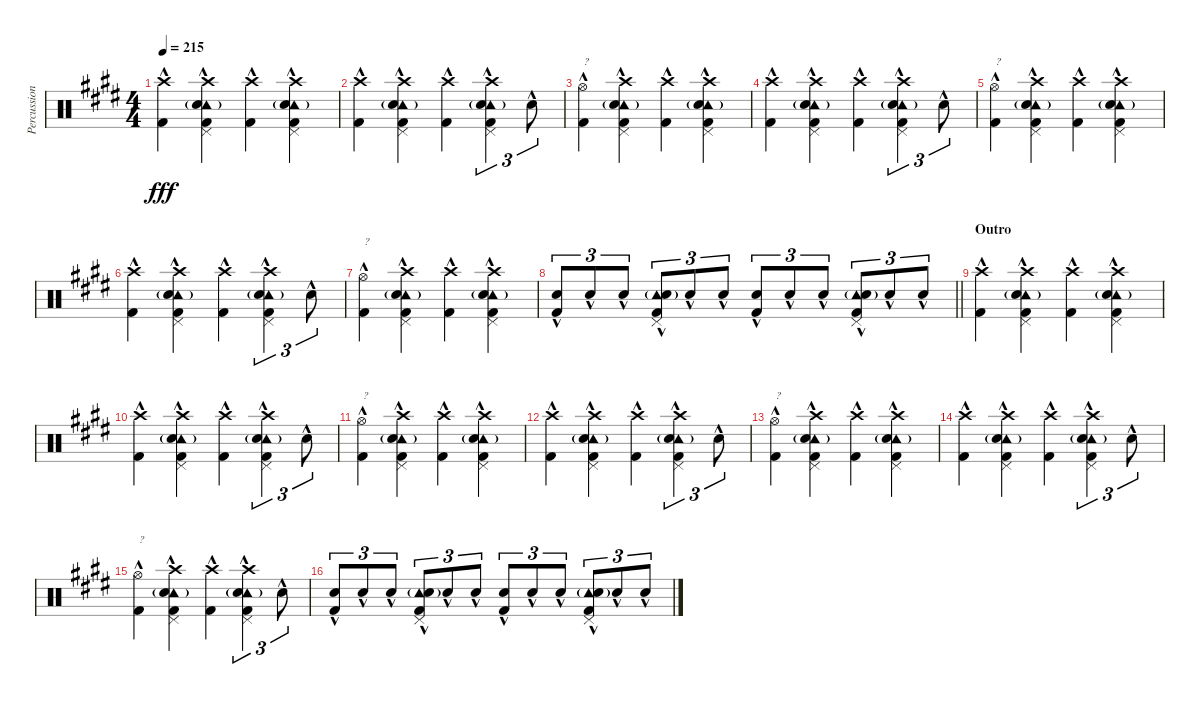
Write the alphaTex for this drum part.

\track ("Percussion" "Percussion") {instrument percussion}
\staff {score}
\articulation defaults
\ts (4 4)
\tempo 215
\clef neutral
\ks e
("Crash high (hit)" "Kick (hit) 2"{hac}).4{dy fff} ("Tambourine (hit)"{g} "Pedal Hi-Hat (hit)" "Crash high (hit)" "Electric Snare (hit)"{hac} "Kick (hit) 2"{hac}).4 ("Crash high (hit)" "Kick (hit) 2"{hac}).4 ("Tambourine (hit)"{g} "Pedal Hi-Hat (hit)" "Crash high (hit)" "Electric Snare (hit)"{hac} "Kick (hit) 2"{hac}).4 |
("Crash high (hit)" "Kick (hit) 2"{hac}).4 ("Tambourine (hit)"{g} "Pedal Hi-Hat (hit)" "Crash high (hit)" "Electric Snare (hit)"{hac} "Kick (hit) 2"{hac}).4 ("Crash high (hit)" "Kick (hit) 2"{hac}).4 ("Tambourine (hit)"{g} "Pedal Hi-Hat (hit)" "Crash high (hit)" "Electric Snare (hit)"{hac} "Kick (hit) 2"{hac}).4{tu (3 2)} "Electric Snare (hit)"{hac}.8{tu (3 2)} |
("Hi-Hat (open)" "Kick (hit) 2"{hac}).4{txt "?"} ("Tambourine (hit)"{g} "Pedal Hi-Hat (hit)" "Crash high (hit)" "Electric Snare (hit)"{hac} "Kick (hit) 2"{hac}).4 ("Crash high (hit)" "Kick (hit) 2"{hac}).4 ("Tambourine (hit)"{g} "Pedal Hi-Hat (hit)" "Crash high (hit)" "Electric Snare (hit)"{hac} "Kick (hit) 2"{hac}).4 |
("Crash high (hit)" "Kick (hit) 2"{hac}).4 ("Tambourine (hit)"{g} "Pedal Hi-Hat (hit)" "Crash high (hit)" "Electric Snare (hit)"{hac} "Kick (hit) 2"{hac}).4 ("Crash high (hit)" "Kick (hit) 2"{hac}).4 ("Tambourine (hit)"{g} "Pedal Hi-Hat (hit)" "Crash high (hit)" "Electric Snare (hit)"{hac} "Kick (hit) 2"{hac}).4{tu (3 2)} "Electric Snare (hit)"{hac}.8{tu (3 2)} |
("Hi-Hat (open)" "Kick (hit) 2"{hac}).4{txt "?"} ("Tambourine (hit)"{g} "Pedal Hi-Hat (hit)" "Crash high (hit)" "Electric Snare (hit)"{hac} "Kick (hit) 2"{hac}).4 ("Crash high (hit)" "Kick (hit) 2"{hac}).4 ("Tambourine (hit)"{g} "Pedal Hi-Hat (hit)" "Crash high (hit)" "Electric Snare (hit)"{hac} "Kick (hit) 2"{hac}).4 |
("Crash high (hit)" "Kick (hit) 2"{hac}).4 ("Tambourine (hit)"{g} "Pedal Hi-Hat (hit)" "Crash high (hit)" "Electric Snare (hit)"{hac} "Kick (hit) 2"{hac}).4 ("Crash high (hit)" "Kick (hit) 2"{hac}).4 ("Tambourine (hit)"{g} "Pedal Hi-Hat (hit)" "Crash high (hit)" "Electric Snare (hit)"{hac} "Kick (hit) 2"{hac}).4{tu (3 2)} "Electric Snare (hit)"{hac}.8{tu (3 2)} |
("Hi-Hat (open)" "Kick (hit) 2"{hac}).4{txt "?"} ("Tambourine (hit)"{g} "Pedal Hi-Hat (hit)" "Crash high (hit)" "Electric Snare (hit)"{hac} "Kick (hit) 2"{hac}).4 ("Crash high (hit)" "Kick (hit) 2"{hac}).4 ("Tambourine (hit)"{g} "Pedal Hi-Hat (hit)" "Crash high (hit)" "Electric Snare (hit)"{hac} "Kick (hit) 2"{hac}).4 |
\barLineRight lightlight
("Electric Snare (hit)"{hac} "Kick (hit) 2"{hac}).8{tu (3 2)} "Electric Snare (hit)"{hac}.8{tu (3 2)} "Electric Snare (hit)"{hac}.8{tu (3 2)} ("Tambourine (hit)"{g} "Pedal Hi-Hat (hit)" "Electric Snare (hit)"{hac} "Kick (hit) 2"{hac}).8{tu (3 2)} "Electric Snare (hit)"{hac}.8{tu (3 2)} "Electric Snare (hit)"{hac}.8{tu (3 2)} ("Electric Snare (hit)"{hac} "Kick (hit) 2"{hac}).8{tu (3 2)} "Electric Snare (hit)"{hac}.8{tu (3 2)} "Electric Snare (hit)"{hac}.8{tu (3 2)} ("Tambourine (hit)"{g} "Pedal Hi-Hat (hit)" "Electric Snare (hit)"{hac} "Kick (hit) 2"{hac}).8{tu (3 2)} "Electric Snare (hit)"{hac}.8{tu (3 2)} "Electric Snare (hit)"{hac}.8{tu (3 2)} |
\section ("" "Outro")
("Crash high (hit)" "Kick (hit) 2"{hac}).4 ("Tambourine (hit)"{g} "Pedal Hi-Hat (hit)" "Crash high (hit)" "Electric Snare (hit)"{hac} "Kick (hit) 2"{hac}).4 ("Crash high (hit)" "Kick (hit) 2"{hac}).4 ("Tambourine (hit)"{g} "Pedal Hi-Hat (hit)" "Crash high (hit)" "Electric Snare (hit)"{hac} "Kick (hit) 2"{hac}).4 |
("Crash high (hit)" "Kick (hit) 2"{hac}).4 ("Tambourine (hit)"{g} "Pedal Hi-Hat (hit)" "Crash high (hit)" "Electric Snare (hit)"{hac} "Kick (hit) 2"{hac}).4 ("Crash high (hit)" "Kick (hit) 2"{hac}).4 ("Tambourine (hit)"{g} "Pedal Hi-Hat (hit)" "Crash high (hit)" "Electric Snare (hit)"{hac} "Kick (hit) 2"{hac}).4{tu (3 2)} "Electric Snare (hit)"{hac}.8{tu (3 2)} |
("Hi-Hat (open)" "Kick (hit) 2"{hac}).4{txt "?"} ("Tambourine (hit)"{g} "Pedal Hi-Hat (hit)" "Crash high (hit)" "Electric Snare (hit)"{hac} "Kick (hit) 2"{hac}).4 ("Crash high (hit)" "Kick (hit) 2"{hac}).4 ("Tambourine (hit)"{g} "Pedal Hi-Hat (hit)" "Crash high (hit)" "Electric Snare (hit)"{hac} "Kick (hit) 2"{hac}).4 |
("Crash high (hit)" "Kick (hit) 2"{hac}).4 ("Tambourine (hit)"{g} "Pedal Hi-Hat (hit)" "Crash high (hit)" "Electric Snare (hit)"{hac} "Kick (hit) 2"{hac}).4 ("Crash high (hit)" "Kick (hit) 2"{hac}).4 ("Tambourine (hit)"{g} "Pedal Hi-Hat (hit)" "Crash high (hit)" "Electric Snare (hit)"{hac} "Kick (hit) 2"{hac}).4{tu (3 2)} "Electric Snare (hit)"{hac}.8{tu (3 2)} |
("Hi-Hat (open)" "Kick (hit) 2"{hac}).4{txt "?"} ("Tambourine (hit)"{g} "Pedal Hi-Hat (hit)" "Crash high (hit)" "Electric Snare (hit)"{hac} "Kick (hit) 2"{hac}).4 ("Crash high (hit)" "Kick (hit) 2"{hac}).4 ("Tambourine (hit)"{g} "Pedal Hi-Hat (hit)" "Crash high (hit)" "Electric Snare (hit)"{hac} "Kick (hit) 2"{hac}).4 |
("Crash high (hit)" "Kick (hit) 2"{hac}).4 ("Tambourine (hit)"{g} "Pedal Hi-Hat (hit)" "Crash high (hit)" "Electric Snare (hit)"{hac} "Kick (hit) 2"{hac}).4 ("Crash high (hit)" "Kick (hit) 2"{hac}).4 ("Tambourine (hit)"{g} "Pedal Hi-Hat (hit)" "Crash high (hit)" "Electric Snare (hit)"{hac} "Kick (hit) 2"{hac}).4{tu (3 2)} "Electric Snare (hit)"{hac}.8{tu (3 2)} |
("Hi-Hat (open)" "Kick (hit) 2"{hac}).4{txt "?"} ("Tambourine (hit)"{g} "Pedal Hi-Hat (hit)" "Crash high (hit)" "Electric Snare (hit)"{hac} "Kick (hit) 2"{hac}).4 ("Crash high (hit)" "Kick (hit) 2"{hac}).4 ("Tambourine (hit)"{g} "Pedal Hi-Hat (hit)" "Crash high (hit)" "Electric Snare (hit)"{hac} "Kick (hit) 2"{hac}).4{tu (3 2)} "Electric Snare (hit)"{hac}.8{tu (3 2)} |
("Electric Snare (hit)"{hac} "Kick (hit) 2"{hac}).8{tu (3 2)} "Electric Snare (hit)"{hac}.8{tu (3 2)} "Electric Snare (hit)"{hac}.8{tu (3 2)} ("Tambourine (hit)"{g} "Pedal Hi-Hat (hit)" "Electric Snare (hit)"{hac} "Kick (hit) 2"{hac}).8{tu (3 2)} "Electric Snare (hit)"{hac}.8{tu (3 2)} "Electric Snare (hit)"{hac}.8{tu (3 2)} ("Electric Snare (hit)"{hac} "Kick (hit) 2"{hac}).8{tu (3 2)} "Electric Snare (hit)"{hac}.8{tu (3 2)} "Electric Snare (hit)"{hac}.8{tu (3 2)} ("Tambourine (hit)"{g} "Pedal Hi-Hat (hit)" "Electric Snare (hit)"{hac} "Kick (hit) 2"{hac}).8{tu (3 2)} "Electric Snare (hit)"{hac}.8{tu (3 2)} "Electric Snare (hit)"{hac}.8{tu (3 2)}
